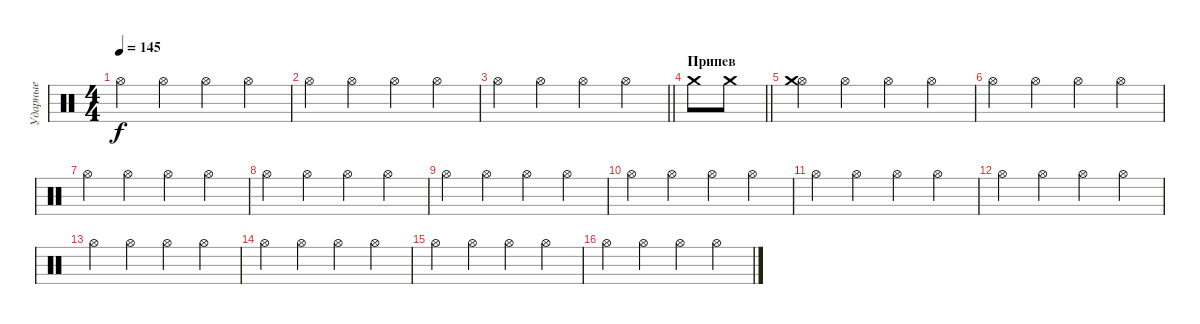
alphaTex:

\track ("Ударные" "Ударные") {instrument percussion}
\staff {score}
\articulation defaults
\ts (4 4)
\tempo 145
\clef neutral
\ks c "Hi-Hat (open)".4{dy f} "Hi-Hat (open)".4 "Hi-Hat (open)".4 "Hi-Hat (open)".4
|
"Hi-Hat (open)".4 "Hi-Hat (open)".4 "Hi-Hat (open)".4 "Hi-Hat (open)".4 |
\barLineRight lightlight "Hi-Hat (open)".4 "Hi-Hat (open)".4 "Hi-Hat (open)".4 "Hi-Hat (open)".4
|
\section ("" "Припев")
\barLineRight lightlight "Crash medium (hit)".8 "Crash medium (hit)".8
|
("Hi-Hat (open)" "Crash medium (hit)").4 "Hi-Hat (open)".4 "Hi-Hat (open)".4 "Hi-Hat (open)".4 |
"Hi-Hat (open)".4 "Hi-Hat (open)".4 "Hi-Hat (open)".4 "Hi-Hat (open)".4 |
"Hi-Hat (open)".4 "Hi-Hat (open)".4 "Hi-Hat (open)".4 "Hi-Hat (open)".4 |
"Hi-Hat (open)".4 "Hi-Hat (open)".4 "Hi-Hat (open)".4 "Hi-Hat (open)".4 |
"Hi-Hat (open)".4 "Hi-Hat (open)".4 "Hi-Hat (open)".4 "Hi-Hat (open)".4 |
"Hi-Hat (open)".4 "Hi-Hat (open)".4 "Hi-Hat (open)".4 "Hi-Hat (open)".4 |
"Hi-Hat (open)".4 "Hi-Hat (open)".4 "Hi-Hat (open)".4 "Hi-Hat (open)".4 |
"Hi-Hat (open)".4 "Hi-Hat (open)".4 "Hi-Hat (open)".4 "Hi-Hat (open)".4 |
"Hi-Hat (open)".4 "Hi-Hat (open)".4 "Hi-Hat (open)".4 "Hi-Hat (open)".4 |
"Hi-Hat (open)".4 "Hi-Hat (open)".4 "Hi-Hat (open)".4 "Hi-Hat (open)".4 |
"Hi-Hat (open)".4 "Hi-Hat (open)".4 "Hi-Hat (open)".4 "Hi-Hat (open)".4 |
"Hi-Hat (open)".4 "Hi-Hat (open)".4 "Hi-Hat (open)".4 "Hi-Hat (open)".4
